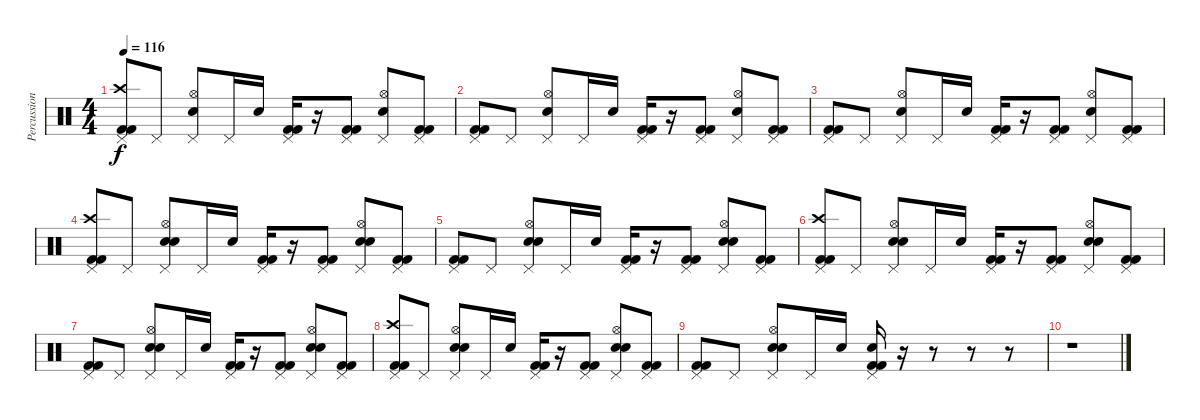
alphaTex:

\track ("Percussion" "Percussion") {instrument percussion}
\staff {score}
\articulation defaults
\ts (4 4)
\tempo 116
\clef neutral
\ks c
("Pedal Hi-Hat (hit)" "Crash high (hit)" "Kick (hit) 2" "Kick (hit) 2").8{dy f} "Pedal Hi-Hat (hit)".8 ("Pedal Hi-Hat (hit)" "Hi-Hat (open)" "Snare (hit) 2").8 "Pedal Hi-Hat (hit)".16 "Snare (hit) 2".16 ("Pedal Hi-Hat (hit)" "Kick (hit) 2" "Kick (hit) 2").16 r.16 ("Pedal Hi-Hat (hit)" "Kick (hit) 2" "Kick (hit) 2").8 ("Pedal Hi-Hat (hit)" "Hi-Hat (open)" "Snare (hit) 2").8 ("Pedal Hi-Hat (hit)" "Kick (hit) 2" "Kick (hit) 2").8 |
("Pedal Hi-Hat (hit)" "Kick (hit) 2" "Kick (hit) 2").8 "Pedal Hi-Hat (hit)".8 ("Pedal Hi-Hat (hit)" "Hi-Hat (open)" "Snare (hit) 2").8 "Pedal Hi-Hat (hit)".16 "Snare (hit) 2".16 ("Pedal Hi-Hat (hit)" "Kick (hit) 2" "Kick (hit) 2").16 r.16 ("Pedal Hi-Hat (hit)" "Kick (hit) 2" "Kick (hit) 2").8 ("Pedal Hi-Hat (hit)" "Hi-Hat (open)" "Snare (hit) 2").8 ("Pedal Hi-Hat (hit)" "Kick (hit) 2" "Kick (hit) 2").8 |
("Pedal Hi-Hat (hit)" "Kick (hit) 2" "Kick (hit) 2").8 "Pedal Hi-Hat (hit)".8 ("Pedal Hi-Hat (hit)" "Hi-Hat (open)" "Snare (hit) 2").8 "Pedal Hi-Hat (hit)".16 "Snare (hit) 2".16 ("Pedal Hi-Hat (hit)" "Kick (hit) 2" "Kick (hit) 2").16 r.16 ("Pedal Hi-Hat (hit)" "Kick (hit) 2" "Kick (hit) 2").8 ("Pedal Hi-Hat (hit)" "Hi-Hat (open)" "Snare (hit) 2").8 ("Pedal Hi-Hat (hit)" "Kick (hit) 2" "Kick (hit) 2").8 |
("Pedal Hi-Hat (hit)" "Crash high (hit)" "Kick (hit) 2" "Kick (hit) 2").8 "Pedal Hi-Hat (hit)".8 ("Pedal Hi-Hat (hit)" "Hi-Hat (open)" "Snare (hit) 2" "Hand Clap (hit)").8 "Pedal Hi-Hat (hit)".16 "Snare (hit) 2".16 ("Pedal Hi-Hat (hit)" "Kick (hit) 2" "Kick (hit) 2").16 r.16 ("Pedal Hi-Hat (hit)" "Kick (hit) 2" "Kick (hit) 2").8 ("Pedal Hi-Hat (hit)" "Hi-Hat (open)" "Snare (hit) 2" "Hand Clap (hit)").8 ("Pedal Hi-Hat (hit)" "Kick (hit) 2" "Kick (hit) 2").8 |
("Pedal Hi-Hat (hit)" "Kick (hit) 2" "Kick (hit) 2").8 "Pedal Hi-Hat (hit)".8 ("Pedal Hi-Hat (hit)" "Hi-Hat (open)" "Snare (hit) 2" "Hand Clap (hit)").8 "Pedal Hi-Hat (hit)".16 "Snare (hit) 2".16 ("Pedal Hi-Hat (hit)" "Kick (hit) 2" "Kick (hit) 2").16 r.16 ("Pedal Hi-Hat (hit)" "Kick (hit) 2" "Kick (hit) 2").8 ("Pedal Hi-Hat (hit)" "Hi-Hat (open)" "Snare (hit) 2" "Hand Clap (hit)").8 ("Pedal Hi-Hat (hit)" "Kick (hit) 2" "Kick (hit) 2").8 |
("Pedal Hi-Hat (hit)" "Crash high (hit)" "Kick (hit) 2" "Kick (hit) 2").8 "Pedal Hi-Hat (hit)".8 ("Pedal Hi-Hat (hit)" "Hi-Hat (open)" "Snare (hit) 2" "Hand Clap (hit)").8 "Pedal Hi-Hat (hit)".16 "Snare (hit) 2".16 ("Pedal Hi-Hat (hit)" "Kick (hit) 2" "Kick (hit) 2").16 r.16 ("Pedal Hi-Hat (hit)" "Kick (hit) 2" "Kick (hit) 2").8 ("Pedal Hi-Hat (hit)" "Hi-Hat (open)" "Snare (hit) 2" "Hand Clap (hit)").8 ("Pedal Hi-Hat (hit)" "Kick (hit) 2" "Kick (hit) 2").8 |
("Pedal Hi-Hat (hit)" "Kick (hit) 2" "Kick (hit) 2").8 "Pedal Hi-Hat (hit)".8 ("Pedal Hi-Hat (hit)" "Hi-Hat (open)" "Snare (hit) 2" "Hand Clap (hit)").8 "Pedal Hi-Hat (hit)".16 "Snare (hit) 2".16 ("Pedal Hi-Hat (hit)" "Kick (hit) 2" "Kick (hit) 2").16 r.16 ("Pedal Hi-Hat (hit)" "Kick (hit) 2" "Kick (hit) 2").8 ("Pedal Hi-Hat (hit)" "Hi-Hat (open)" "Snare (hit) 2" "Hand Clap (hit)").8 ("Pedal Hi-Hat (hit)" "Kick (hit) 2" "Kick (hit) 2").8 |
("Pedal Hi-Hat (hit)" "Crash high (hit)" "Kick (hit) 2" "Kick (hit) 2").8 "Pedal Hi-Hat (hit)".8 ("Pedal Hi-Hat (hit)" "Hi-Hat (open)" "Snare (hit) 2" "Hand Clap (hit)").8 "Pedal Hi-Hat (hit)".16 "Snare (hit) 2".16 ("Pedal Hi-Hat (hit)" "Kick (hit) 2" "Kick (hit) 2").16 r.16 ("Pedal Hi-Hat (hit)" "Kick (hit) 2" "Kick (hit) 2").8 ("Pedal Hi-Hat (hit)" "Hi-Hat (open)" "Snare (hit) 2" "Hand Clap (hit)").8 ("Pedal Hi-Hat (hit)" "Kick (hit) 2" "Kick (hit) 2").8 |
("Pedal Hi-Hat (hit)" "Kick (hit) 2" "Kick (hit) 2").8 "Pedal Hi-Hat (hit)".8 ("Pedal Hi-Hat (hit)" "Hi-Hat (open)" "Snare (hit) 2" "Hand Clap (hit)").8 "Pedal Hi-Hat (hit)".16 "Snare (hit) 2".16 ("Pedal Hi-Hat (hit)" "Snare (hit) 2" "Kick (hit) 2" "Kick (hit) 2").16 r.16 r.8 r.8 r.8 |
r.1
